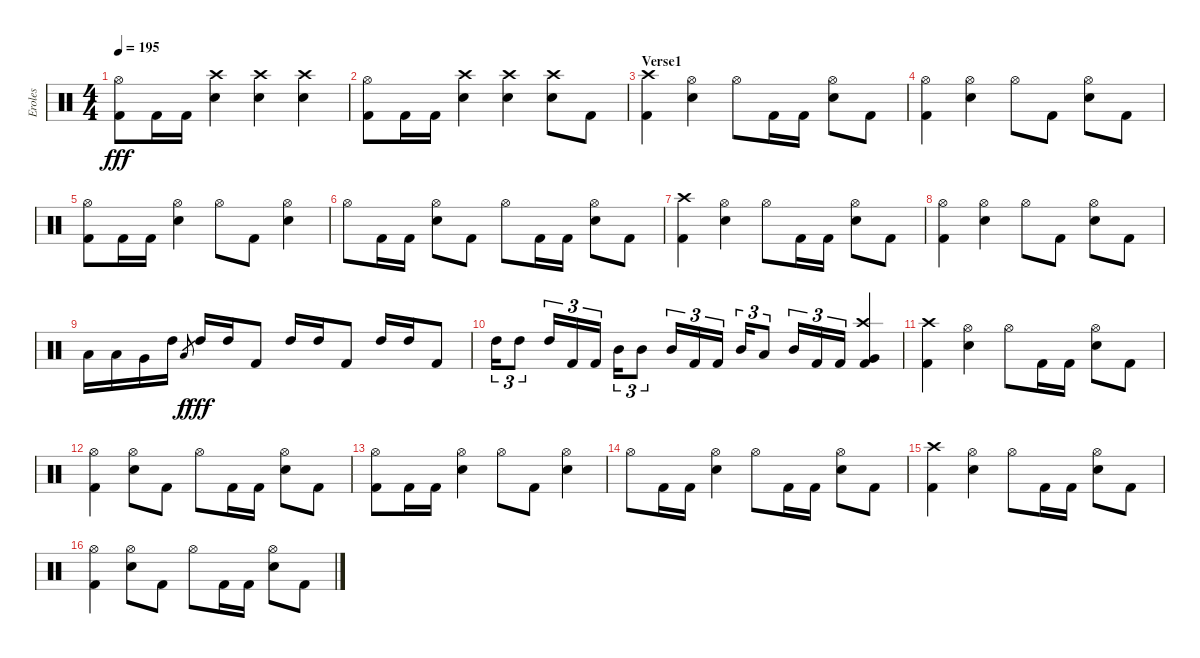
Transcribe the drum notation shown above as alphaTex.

\track ("Eroles" "Eroles") {instrument percussion}
\staff {score}
\articulation defaults
\ts (4 4)
\tempo 195
\clef neutral
\ks c
("Hi-Hat (open)" "Kick (hit) 2").8{dy fff} "Kick (hit) 2".16 "Kick (hit) 2".16 ("Crash high (hit)" "Snare (hit) 2").4 ("Crash high (hit)" "Snare (hit) 2").4 ("Crash high (hit)" "Snare (hit) 2").4 |
("Hi-Hat (open)" "Kick (hit) 2").8 "Kick (hit) 2".16 "Kick (hit) 2".16 ("Crash high (hit)" "Snare (hit) 2").4 ("Crash high (hit)" "Snare (hit) 2").4 ("Crash high (hit)" "Snare (hit) 2").8 "Kick (hit) 2".8 |
\section ("" "Verse1")
("Crash high (hit)" "Kick (hit) 2").4 ("Hi-Hat (open)" "Snare (hit) 2").4 "Hi-Hat (open)".8 "Kick (hit) 2".16 "Kick (hit) 2".16 ("Hi-Hat (open)" "Snare (hit) 2").8 "Kick (hit) 2".8 |
("Hi-Hat (open)" "Kick (hit) 2").4 ("Hi-Hat (open)" "Snare (hit) 2").4 "Hi-Hat (open)".8 "Kick (hit) 2".8 ("Hi-Hat (open)" "Snare (hit) 2").8 "Kick (hit) 2".8 |
("Hi-Hat (open)" "Kick (hit) 2").8 "Kick (hit) 2".16 "Kick (hit) 2".16 ("Hi-Hat (open)" "Snare (hit) 2").4 "Hi-Hat (open)".8 "Kick (hit) 2".8 ("Hi-Hat (open)" "Snare (hit) 2").4 |
"Hi-Hat (open)".8 "Kick (hit) 2".16 "Kick (hit) 2".16 ("Hi-Hat (open)" "Snare (hit) 2").8 "Kick (hit) 2".8 "Hi-Hat (open)".8 "Kick (hit) 2".16 "Kick (hit) 2".16 ("Hi-Hat (open)" "Snare (hit) 2").8 "Kick (hit) 2".8 |
("Crash high (hit)" "Kick (hit) 2").4 ("Hi-Hat (open)" "Snare (hit) 2").4 "Hi-Hat (open)".8 "Kick (hit) 2".16 "Kick (hit) 2".16 ("Hi-Hat (open)" "Snare (hit) 2").8 "Kick (hit) 2".8 |
("Hi-Hat (open)" "Kick (hit) 2").4 ("Hi-Hat (open)" "Snare (hit) 2").4 "Hi-Hat (open)".8 "Kick (hit) 2".8 ("Hi-Hat (open)" "Snare (hit) 2").8 "Kick (hit) 2".8 |
"Low Tom (hit)".16 "Low Tom (hit)".16 "Very Low Tom (hit)".16 "High Tom (hit)".16 "Low Tom (hit)".8{gr dy f} "High Tom (hit)".16{dy fff} "High Tom (hit)".16 "Kick (hit) 2".8 "High Tom (hit)".16 "High Tom (hit)".16 "Kick (hit) 2".8 "High Tom (hit)".16 "High Tom (hit)".16 "Kick (hit) 2".8 |
"High Tom (hit)".16{tu (3 2)} "High Tom (hit)".8{tu (3 2)} "High Tom (hit)".16{tu (3 2)} "Kick (hit) 2".16{tu (3 2)} "Kick (hit) 2".16{tu (3 2)} "Mid Tom (hit)".16{tu (3 2)} "Mid Tom (hit)".8{tu (3 2)} "Mid Tom (hit)".16{tu (3 2)} "Kick (hit) 2".16{tu (3 2)} "Kick (hit) 2".16{tu (3 2)} "Mid Tom (hit)".16{tu (3 2)} "Low Tom (hit)".8{tu (3 2)} "Mid Tom (hit)".16{tu (3 2)} "Kick (hit) 2".16{tu (3 2)} "Kick (hit) 2".16{tu (3 2)} ("Crash high (hit)" "Very Low Tom (hit)" "Kick (hit) 2").4 |
("Crash high (hit)" "Kick (hit) 2").4 ("Hi-Hat (open)" "Snare (hit) 2").4 "Hi-Hat (open)".8 "Kick (hit) 2".16 "Kick (hit) 2".16 ("Hi-Hat (open)" "Snare (hit) 2").8 "Kick (hit) 2".8 |
("Hi-Hat (open)" "Kick (hit) 2").4 ("Hi-Hat (open)" "Snare (hit) 2").8 "Kick (hit) 2".8 "Hi-Hat (open)".8 "Kick (hit) 2".16 "Kick (hit) 2".16 ("Hi-Hat (open)" "Snare (hit) 2").8 "Kick (hit) 2".8 |
("Hi-Hat (open)" "Kick (hit) 2").8 "Kick (hit) 2".16 "Kick (hit) 2".16 ("Hi-Hat (open)" "Snare (hit) 2").4 "Hi-Hat (open)".8 "Kick (hit) 2".8 ("Hi-Hat (open)" "Snare (hit) 2").4 |
"Hi-Hat (open)".8 "Kick (hit) 2".16 "Kick (hit) 2".16 ("Hi-Hat (open)" "Snare (hit) 2").4 "Hi-Hat (open)".8 "Kick (hit) 2".16 "Kick (hit) 2".16 ("Hi-Hat (open)" "Snare (hit) 2").8 "Kick (hit) 2".8 |
("Crash high (hit)" "Kick (hit) 2").4 ("Hi-Hat (open)" "Snare (hit) 2").4 "Hi-Hat (open)".8 "Kick (hit) 2".16 "Kick (hit) 2".16 ("Hi-Hat (open)" "Snare (hit) 2").8 "Kick (hit) 2".8 |
("Hi-Hat (open)" "Kick (hit) 2").4 ("Hi-Hat (open)" "Snare (hit) 2").8 "Kick (hit) 2".8 "Hi-Hat (open)".8 "Kick (hit) 2".16 "Kick (hit) 2".16 ("Hi-Hat (open)" "Snare (hit) 2").8 "Kick (hit) 2".8
